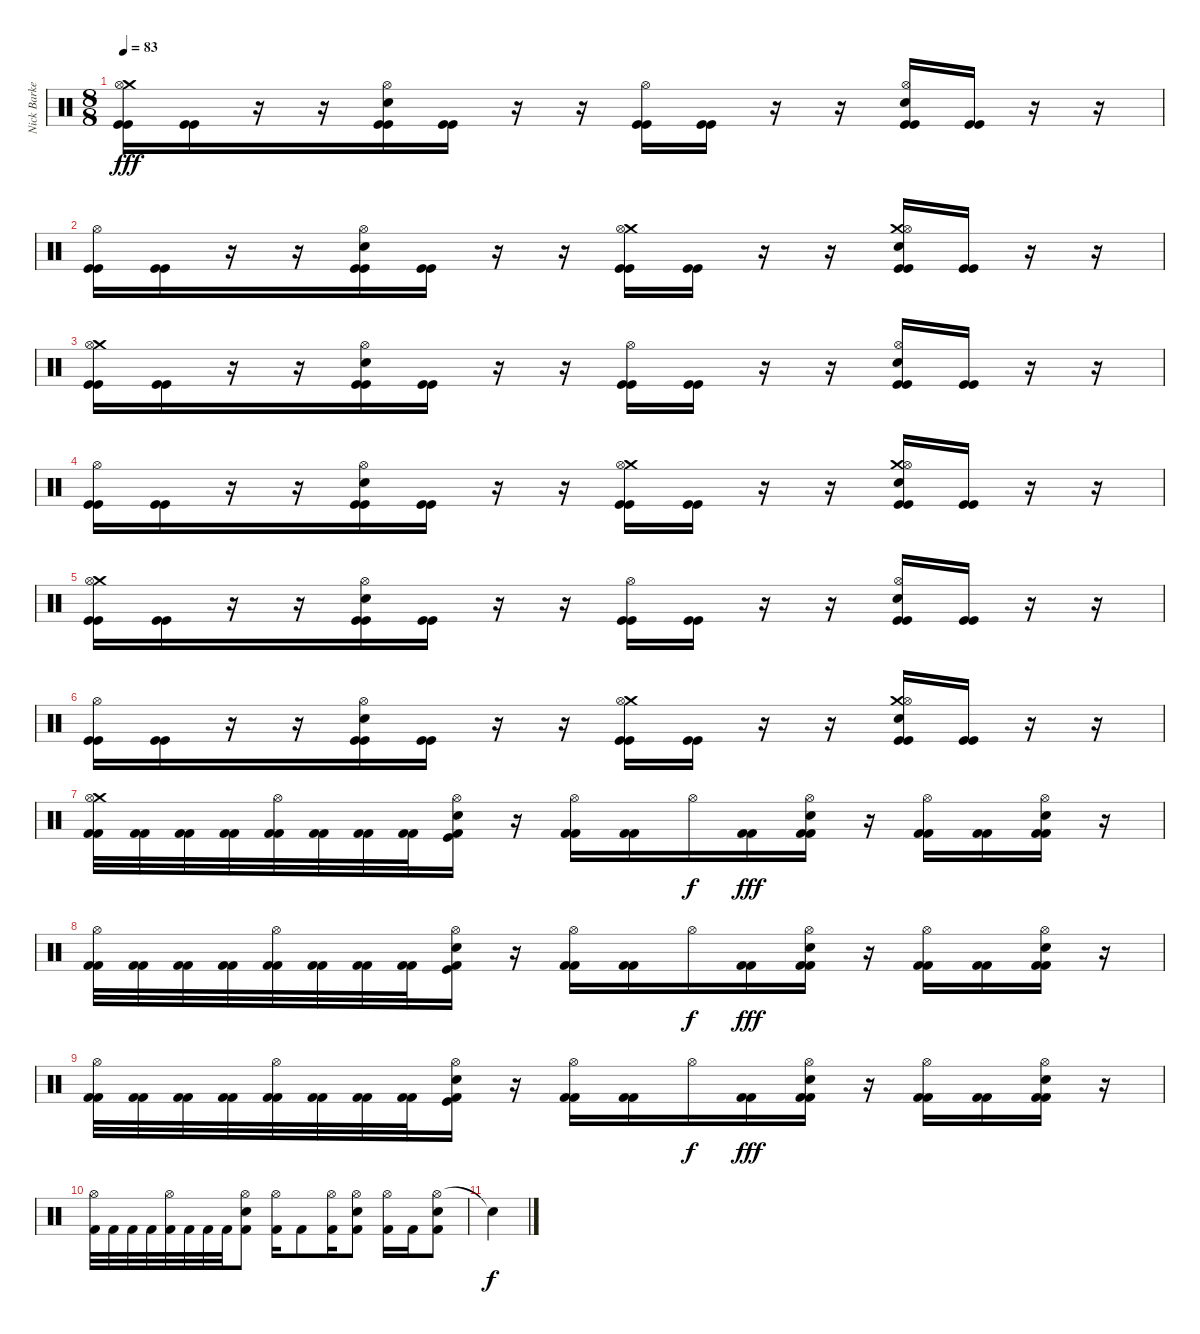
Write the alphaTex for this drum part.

\track ("Nick Barker" "Nick Barke") {instrument percussion}
\staff {score}
\articulation defaults
\ts (8 8)
\tempo 83
\clef neutral
\ks c
("Kick (hit)" "Crash medium (hit)" "Hi-Hat (open)" "Kick (hit)").16{dy fff} ("Kick (hit)" "Kick (hit)").16 r.16 r.16 ("Kick (hit)" "Snare (hit) 2" "Hi-Hat (open)" "Kick (hit)").16 ("Kick (hit)" "Kick (hit)").16 r.16 r.16 ("Kick (hit)" "Hi-Hat (open)" "Kick (hit)").16 ("Kick (hit)" "Kick (hit)").16 r.16 r.16 ("Kick (hit)" "Snare (hit) 2" "Hi-Hat (open)" "Kick (hit)").16 ("Kick (hit)" "Kick (hit)").16 r.16 r.16 |
("Kick (hit)" "Hi-Hat (open)" "Kick (hit)").16 ("Kick (hit)" "Kick (hit)").16 r.16 r.16 ("Kick (hit)" "Snare (hit) 2" "Hi-Hat (open)" "Kick (hit)").16 ("Kick (hit)" "Kick (hit)").16 r.16 r.16 ("Kick (hit)" "Crash medium (hit)" "Hi-Hat (open)" "Kick (hit)").16 ("Kick (hit)" "Kick (hit)").16 r.16 r.16 ("Kick (hit)" "Crash medium (hit)" "Snare (hit) 2" "Hi-Hat (open)" "Kick (hit)").16 ("Kick (hit)" "Kick (hit)").16 r.16 r.16 |
("Kick (hit)" "Crash medium (hit)" "Hi-Hat (open)" "Kick (hit)").16 ("Kick (hit)" "Kick (hit)").16 r.16 r.16 ("Kick (hit)" "Snare (hit) 2" "Hi-Hat (open)" "Kick (hit)").16 ("Kick (hit)" "Kick (hit)").16 r.16 r.16 ("Kick (hit)" "Hi-Hat (open)" "Kick (hit)").16 ("Kick (hit)" "Kick (hit)").16 r.16 r.16 ("Kick (hit)" "Snare (hit) 2" "Hi-Hat (open)" "Kick (hit)").16 ("Kick (hit)" "Kick (hit)").16 r.16 r.16 |
("Kick (hit)" "Hi-Hat (open)" "Kick (hit)").16 ("Kick (hit)" "Kick (hit)").16 r.16 r.16 ("Kick (hit)" "Snare (hit) 2" "Hi-Hat (open)" "Kick (hit)").16 ("Kick (hit)" "Kick (hit)").16 r.16 r.16 ("Kick (hit)" "Crash medium (hit)" "Hi-Hat (open)" "Kick (hit)").16 ("Kick (hit)" "Kick (hit)").16 r.16 r.16 ("Kick (hit)" "Crash medium (hit)" "Snare (hit) 2" "Hi-Hat (open)" "Kick (hit)").16 ("Kick (hit)" "Kick (hit)").16 r.16 r.16 |
("Kick (hit)" "Crash medium (hit)" "Hi-Hat (open)" "Kick (hit)").16 ("Kick (hit)" "Kick (hit)").16 r.16 r.16 ("Kick (hit)" "Snare (hit) 2" "Hi-Hat (open)" "Kick (hit)").16 ("Kick (hit)" "Kick (hit)").16 r.16 r.16 ("Kick (hit)" "Hi-Hat (open)" "Kick (hit)").16 ("Kick (hit)" "Kick (hit)").16 r.16 r.16 ("Kick (hit)" "Snare (hit) 2" "Hi-Hat (open)" "Kick (hit)").16 ("Kick (hit)" "Kick (hit)").16 r.16 r.16 |
("Kick (hit)" "Hi-Hat (open)" "Kick (hit)").16 ("Kick (hit)" "Kick (hit)").16 r.16 r.16 ("Kick (hit)" "Snare (hit) 2" "Hi-Hat (open)" "Kick (hit)").16 ("Kick (hit)" "Kick (hit)").16 r.16 r.16 ("Kick (hit)" "Crash medium (hit)" "Hi-Hat (open)" "Kick (hit)").16 ("Kick (hit)" "Kick (hit)").16 r.16 r.16 ("Kick (hit)" "Crash medium (hit)" "Snare (hit) 2" "Hi-Hat (open)" "Kick (hit)").16 ("Kick (hit)" "Kick (hit)").16 r.16 r.16 |
("Kick (hit) 2" "Crash medium (hit)" "Hi-Hat (open)" "Kick (hit) 2").32 ("Kick (hit) 2" "Kick (hit) 2").32 ("Kick (hit) 2" "Kick (hit) 2").32 ("Kick (hit) 2" "Kick (hit) 2").32 ("Kick (hit) 2" "Hi-Hat (open)" "Kick (hit) 2").32 ("Kick (hit) 2" "Kick (hit) 2").32 ("Kick (hit) 2" "Kick (hit) 2").32 ("Kick (hit) 2" "Kick (hit) 2").32 ("Kick (hit) 2" "Hi-Hat (open)" "Snare (hit) 2" "Kick (hit)").16 r.16 ("Kick (hit) 2" "Hi-Hat (open)" "Kick (hit) 2").16 ("Kick (hit) 2" "Kick (hit) 2").16 "Hi-Hat (open)".16{dy f} ("Kick (hit) 2" "Kick (hit) 2").16{dy fff} ("Kick (hit) 2" "Snare (hit) 2" "Hi-Hat (open)" "Kick (hit) 2").16 r.16 ("Kick (hit) 2" "Hi-Hat (open)" "Kick (hit) 2").16 ("Kick (hit) 2" "Kick (hit) 2").16 ("Kick (hit) 2" "Snare (hit) 2" "Hi-Hat (open)" "Kick (hit) 2").16 r.16 |
("Kick (hit) 2" "Hi-Hat (open)" "Kick (hit) 2").32 ("Kick (hit) 2" "Kick (hit) 2").32 ("Kick (hit) 2" "Kick (hit) 2").32 ("Kick (hit) 2" "Kick (hit) 2").32 ("Kick (hit) 2" "Hi-Hat (open)" "Kick (hit) 2").32 ("Kick (hit) 2" "Kick (hit) 2").32 ("Kick (hit) 2" "Kick (hit) 2").32 ("Kick (hit) 2" "Kick (hit) 2").32 ("Kick (hit) 2" "Hi-Hat (open)" "Snare (hit) 2" "Kick (hit)").16 r.16 ("Kick (hit) 2" "Hi-Hat (open)" "Kick (hit) 2").16 ("Kick (hit) 2" "Kick (hit) 2").16 "Hi-Hat (open)".16{dy f} ("Kick (hit) 2" "Kick (hit) 2").16{dy fff} ("Kick (hit) 2" "Snare (hit) 2" "Hi-Hat (open)" "Kick (hit) 2").16 r.16 ("Kick (hit) 2" "Hi-Hat (open)" "Kick (hit) 2").16 ("Kick (hit) 2" "Kick (hit) 2").16 ("Kick (hit) 2" "Snare (hit) 2" "Hi-Hat (open)" "Kick (hit) 2").16 r.16 |
("Kick (hit) 2" "Hi-Hat (open)" "Kick (hit) 2").32 ("Kick (hit) 2" "Kick (hit) 2").32 ("Kick (hit) 2" "Kick (hit) 2").32 ("Kick (hit) 2" "Kick (hit) 2").32 ("Kick (hit) 2" "Hi-Hat (open)" "Kick (hit) 2").32 ("Kick (hit) 2" "Kick (hit) 2").32 ("Kick (hit) 2" "Kick (hit) 2").32 ("Kick (hit) 2" "Kick (hit) 2").32 ("Kick (hit) 2" "Hi-Hat (open)" "Snare (hit) 2" "Kick (hit)").16 r.16 ("Kick (hit) 2" "Hi-Hat (open)" "Kick (hit) 2").16 ("Kick (hit) 2" "Kick (hit) 2").16 "Hi-Hat (open)".16{dy f} ("Kick (hit) 2" "Kick (hit) 2").16{dy fff} ("Kick (hit) 2" "Snare (hit) 2" "Hi-Hat (open)" "Kick (hit) 2").16 r.16 ("Kick (hit) 2" "Hi-Hat (open)" "Kick (hit) 2").16 ("Kick (hit) 2" "Kick (hit) 2").16 ("Kick (hit) 2" "Snare (hit) 2" "Hi-Hat (open)" "Kick (hit) 2").16 r.16 |
("Hi-Hat (open)" "Kick (hit) 2").32 "Kick (hit) 2".32 "Kick (hit) 2".32 "Kick (hit) 2".32 ("Hi-Hat (open)" "Kick (hit) 2").32 "Kick (hit) 2".32 "Kick (hit) 2".32 "Kick (hit) 2".32 ("Hi-Hat (open)" "Snare (hit) 2" "Kick (hit) 2").8 ("Hi-Hat (open)" "Kick (hit) 2").16 "Kick (hit) 2".8 ("Hi-Hat (open)" "Kick (hit) 2").16 ("Hi-Hat (open)" "Snare (hit) 2" "Kick (hit) 2").8 ("Hi-Hat (open)" "Kick (hit) 2").16 "Kick (hit) 2".16 ("Hi-Hat (open)" "Snare (hit) 2" "Kick (hit) 2").8 |
"Snare (hit)"{t}.4{dy f}
